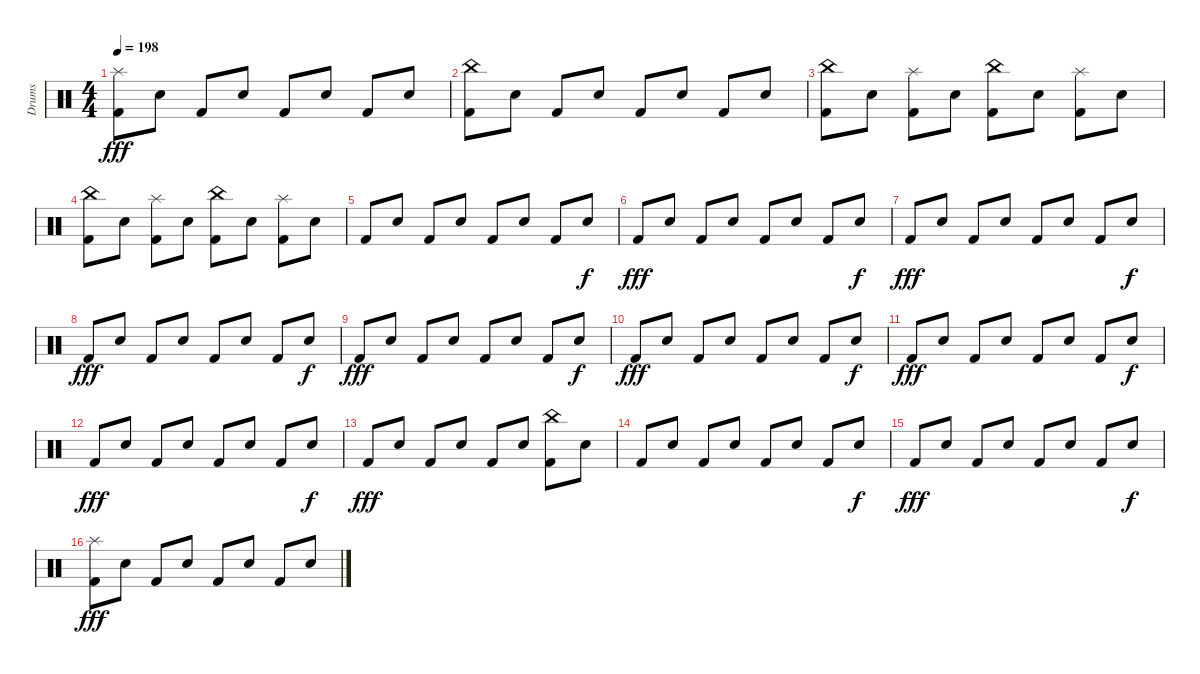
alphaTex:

\track ("Drums" "Drums") {instrument percussion}
\staff {score}
\articulation defaults
\ts (4 4)
\tempo 198
\clef neutral
\ks c
("Splash (hit)" "Kick (hit) 2").8{dy fff} "Snare (hit) 2".8 "Kick (hit) 2".8 "Snare (hit) 2".8 "Kick (hit) 2".8 "Snare (hit) 2".8 "Kick (hit) 2".8 "Snare (hit) 2".8 |
("China (hit)" "Kick (hit) 2").8 "Snare (hit) 2".8 "Kick (hit) 2".8 "Snare (hit) 2".8 "Kick (hit) 2".8 "Snare (hit) 2".8 "Kick (hit) 2".8 "Snare (hit) 2".8 |
("China (hit)" "Kick (hit) 2").8 "Snare (hit) 2".8 ("Splash (hit)" "Kick (hit) 2").8 "Snare (hit) 2".8 ("China (hit)" "Kick (hit) 2").8 "Snare (hit) 2".8 ("Splash (hit)" "Kick (hit) 2").8 "Snare (hit) 2".8 |
("China (hit)" "Kick (hit) 2").8 "Snare (hit) 2".8 ("Splash (hit)" "Kick (hit) 2").8 "Snare (hit) 2".8 ("China (hit)" "Kick (hit) 2").8 "Snare (hit) 2".8 ("Splash (hit)" "Kick (hit) 2").8 "Snare (hit) 2".8 |
"Kick (hit) 2".8 "Snare (hit) 2".8 "Kick (hit) 2".8 "Snare (hit) 2".8 "Kick (hit) 2".8 "Snare (hit) 2".8 "Kick (hit) 2".8 "Snare (hit) 2".8{dy f} |
"Kick (hit) 2".8{dy fff} "Snare (hit) 2".8 "Kick (hit) 2".8 "Snare (hit) 2".8 "Kick (hit) 2".8 "Snare (hit) 2".8 "Kick (hit) 2".8 "Snare (hit) 2".8{dy f} |
"Kick (hit) 2".8{dy fff} "Snare (hit) 2".8 "Kick (hit) 2".8 "Snare (hit) 2".8 "Kick (hit) 2".8 "Snare (hit) 2".8 "Kick (hit) 2".8 "Snare (hit) 2".8{dy f} |
"Kick (hit) 2".8{dy fff} "Snare (hit) 2".8 "Kick (hit) 2".8 "Snare (hit) 2".8 "Kick (hit) 2".8 "Snare (hit) 2".8 "Kick (hit) 2".8 "Snare (hit) 2".8{dy f} |
"Kick (hit) 2".8{dy fff} "Snare (hit) 2".8 "Kick (hit) 2".8 "Snare (hit) 2".8 "Kick (hit) 2".8 "Snare (hit) 2".8 "Kick (hit) 2".8 "Snare (hit) 2".8{dy f} |
"Kick (hit) 2".8{dy fff} "Snare (hit) 2".8 "Kick (hit) 2".8 "Snare (hit) 2".8 "Kick (hit) 2".8 "Snare (hit) 2".8 "Kick (hit) 2".8 "Snare (hit) 2".8{dy f} |
"Kick (hit) 2".8{dy fff} "Snare (hit) 2".8 "Kick (hit) 2".8 "Snare (hit) 2".8 "Kick (hit) 2".8 "Snare (hit) 2".8 "Kick (hit) 2".8 "Snare (hit) 2".8{dy f} |
"Kick (hit) 2".8{dy fff} "Snare (hit) 2".8 "Kick (hit) 2".8 "Snare (hit) 2".8 "Kick (hit) 2".8 "Snare (hit) 2".8 "Kick (hit) 2".8 "Snare (hit) 2".8{dy f} |
"Kick (hit) 2".8{dy fff} "Snare (hit) 2".8 "Kick (hit) 2".8 "Snare (hit) 2".8 "Kick (hit) 2".8 "Snare (hit) 2".8 ("China (hit)" "Kick (hit) 2").8 "Snare (hit) 2".8 |
"Kick (hit) 2".8 "Snare (hit) 2".8 "Kick (hit) 2".8 "Snare (hit) 2".8 "Kick (hit) 2".8 "Snare (hit) 2".8 "Kick (hit) 2".8 "Snare (hit) 2".8{dy f} |
"Kick (hit) 2".8{dy fff} "Snare (hit) 2".8 "Kick (hit) 2".8 "Snare (hit) 2".8 "Kick (hit) 2".8 "Snare (hit) 2".8 "Kick (hit) 2".8 "Snare (hit) 2".8{dy f} |
("Splash (hit)" "Kick (hit) 2").8{dy fff} "Snare (hit) 2".8 "Kick (hit) 2".8 "Snare (hit) 2".8 "Kick (hit) 2".8 "Snare (hit) 2".8 "Kick (hit) 2".8 "Snare (hit) 2".8
